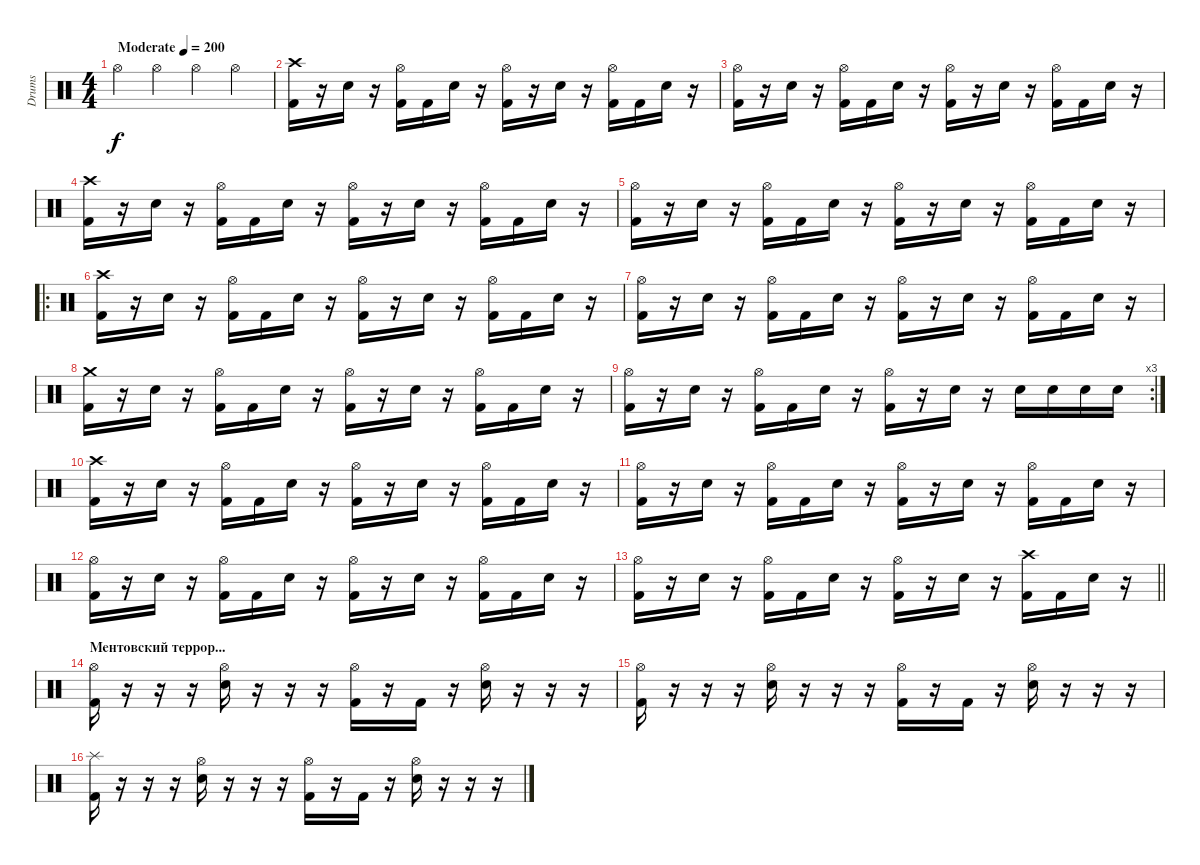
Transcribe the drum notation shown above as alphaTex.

\track ("Drums" "Drums") {instrument percussion}
\staff {score}
\articulation defaults
\ts (4 4)
\tempo (200 "Moderate")
\clef neutral
\ks c "Hi-Hat (open)".4{dy f} "Hi-Hat (open)".4 "Hi-Hat (open)".4 "Hi-Hat (open)".4
|
("Crash high (hit)" "Kick (hit) 2").16 r.16 "Electric Snare (hit)".16 r.16 ("Hi-Hat (open)" "Kick (hit) 2").16 "Kick (hit) 2".16 "Electric Snare (hit)".16 r.16 ("Hi-Hat (open)" "Kick (hit) 2").16 r.16 "Electric Snare (hit)".16 r.16 ("Hi-Hat (open)" "Kick (hit) 2").16 "Kick (hit) 2".16 "Electric Snare (hit)".16 r.16 |
("Hi-Hat (open)" "Kick (hit) 2").16 r.16 "Electric Snare (hit)".16 r.16 ("Hi-Hat (open)" "Kick (hit) 2").16 "Kick (hit) 2".16 "Electric Snare (hit)".16 r.16 ("Hi-Hat (open)" "Kick (hit) 2").16 r.16 "Electric Snare (hit)".16 r.16 ("Hi-Hat (open)" "Kick (hit) 2").16 "Kick (hit) 2".16 "Electric Snare (hit)".16 r.16 |
("Crash high (hit)" "Kick (hit) 2").16 r.16 "Electric Snare (hit)".16 r.16 ("Hi-Hat (open)" "Kick (hit) 2").16 "Kick (hit) 2".16 "Electric Snare (hit)".16 r.16 ("Hi-Hat (open)" "Kick (hit) 2").16 r.16 "Electric Snare (hit)".16 r.16 ("Hi-Hat (open)" "Kick (hit) 2").16 "Kick (hit) 2".16 "Electric Snare (hit)".16 r.16 |
("Hi-Hat (open)" "Kick (hit) 2").16 r.16 "Electric Snare (hit)".16 r.16 ("Hi-Hat (open)" "Kick (hit) 2").16 "Kick (hit) 2".16 "Electric Snare (hit)".16 r.16 ("Hi-Hat (open)" "Kick (hit) 2").16 r.16 "Electric Snare (hit)".16 r.16 ("Hi-Hat (open)" "Kick (hit) 2").16 "Kick (hit) 2".16 "Electric Snare (hit)".16 r.16 |
\ro
("Crash high (hit)" "Kick (hit) 2").16 r.16 "Electric Snare (hit)".16 r.16 ("Hi-Hat (open)" "Kick (hit) 2").16 "Kick (hit) 2".16 "Electric Snare (hit)".16 r.16 ("Hi-Hat (open)" "Kick (hit) 2").16 r.16 "Electric Snare (hit)".16 r.16 ("Hi-Hat (open)" "Kick (hit) 2").16 "Kick (hit) 2".16 "Electric Snare (hit)".16 r.16 |
("Hi-Hat (open)" "Kick (hit) 2").16 r.16 "Electric Snare (hit)".16 r.16 ("Hi-Hat (open)" "Kick (hit) 2").16 "Kick (hit) 2".16 "Electric Snare (hit)".16 r.16 ("Hi-Hat (open)" "Kick (hit) 2").16 r.16 "Electric Snare (hit)".16 r.16 ("Hi-Hat (open)" "Kick (hit) 2").16 "Kick (hit) 2".16 "Electric Snare (hit)".16 r.16 |
("Crash medium (hit)" "Kick (hit) 2").16 r.16 "Electric Snare (hit)".16 r.16 ("Hi-Hat (open)" "Kick (hit) 2").16 "Kick (hit) 2".16 "Electric Snare (hit)".16 r.16 ("Hi-Hat (open)" "Kick (hit) 2").16 r.16 "Electric Snare (hit)".16 r.16 ("Hi-Hat (open)" "Kick (hit) 2").16 "Kick (hit) 2".16 "Electric Snare (hit)".16 r.16 |
\rc 3
("Hi-Hat (open)" "Kick (hit) 2").16 r.16 "Electric Snare (hit)".16 r.16 ("Hi-Hat (open)" "Kick (hit) 2").16 "Kick (hit) 2".16 "Electric Snare (hit)".16 r.16 ("Hi-Hat (open)" "Kick (hit) 2").16 r.16 "Electric Snare (hit)".16 r.16 "Electric Snare (hit)".16 "Electric Snare (hit)".16 "Electric Snare (hit)".16 "Electric Snare (hit)".16 |
("Crash high (hit)" "Kick (hit) 2").16 r.16 "Electric Snare (hit)".16 r.16 ("Hi-Hat (open)" "Kick (hit) 2").16 "Kick (hit) 2".16 "Electric Snare (hit)".16 r.16 ("Hi-Hat (open)" "Kick (hit) 2").16 r.16 "Electric Snare (hit)".16 r.16 ("Hi-Hat (open)" "Kick (hit) 2").16 "Kick (hit) 2".16 "Electric Snare (hit)".16 r.16 |
("Hi-Hat (open)" "Kick (hit) 2").16 r.16 "Electric Snare (hit)".16 r.16 ("Hi-Hat (open)" "Kick (hit) 2").16 "Kick (hit) 2".16 "Electric Snare (hit)".16 r.16 ("Hi-Hat (open)" "Kick (hit) 2").16 r.16 "Electric Snare (hit)".16 r.16 ("Hi-Hat (open)" "Kick (hit) 2").16 "Kick (hit) 2".16 "Electric Snare (hit)".16 r.16 |
("Hi-Hat (open)" "Kick (hit) 2").16 r.16 "Electric Snare (hit)".16 r.16 ("Hi-Hat (open)" "Kick (hit) 2").16 "Kick (hit) 2".16 "Electric Snare (hit)".16 r.16 ("Hi-Hat (open)" "Kick (hit) 2").16 r.16 "Electric Snare (hit)".16 r.16 ("Hi-Hat (open)" "Kick (hit) 2").16 "Kick (hit) 2".16 "Electric Snare (hit)".16 r.16 |
\barLineRight lightlight
("Hi-Hat (open)" "Kick (hit) 2").16 r.16 "Electric Snare (hit)".16 r.16 ("Hi-Hat (open)" "Kick (hit) 2").16 "Kick (hit) 2".16 "Electric Snare (hit)".16 r.16 ("Hi-Hat (open)" "Kick (hit) 2").16 r.16 "Electric Snare (hit)".16 r.16 ("Crash high (hit)" "Kick (hit) 2").16 "Kick (hit) 2".16 "Electric Snare (hit)".16 r.16 |
\section ("" "Ментовский террор...")
("Hi-Hat (open)" "Kick (hit) 2").16 r.16 r.16 r.16 ("Hi-Hat (open)" "Electric Snare (hit)").16 r.16 r.16 r.16 ("Hi-Hat (open)" "Kick (hit) 2").16 r.16 "Kick (hit) 2".16 r.16 ("Hi-Hat (open)" "Electric Snare (hit)").16 r.16 r.16 r.16 |
("Hi-Hat (open)" "Kick (hit) 2").16 r.16 r.16 r.16 ("Hi-Hat (open)" "Electric Snare (hit)").16 r.16 r.16 r.16 ("Hi-Hat (open)" "Kick (hit) 2").16 r.16 "Kick (hit) 2".16 r.16 ("Hi-Hat (open)" "Electric Snare (hit)").16 r.16 r.16 r.16 |
("Splash (hit)" "Kick (hit) 2").16 r.16 r.16 r.16 ("Hi-Hat (open)" "Electric Snare (hit)").16 r.16 r.16 r.16 ("Hi-Hat (open)" "Kick (hit) 2").16 r.16 "Kick (hit) 2".16 r.16 ("Hi-Hat (open)" "Electric Snare (hit)").16 r.16 r.16 r.16
